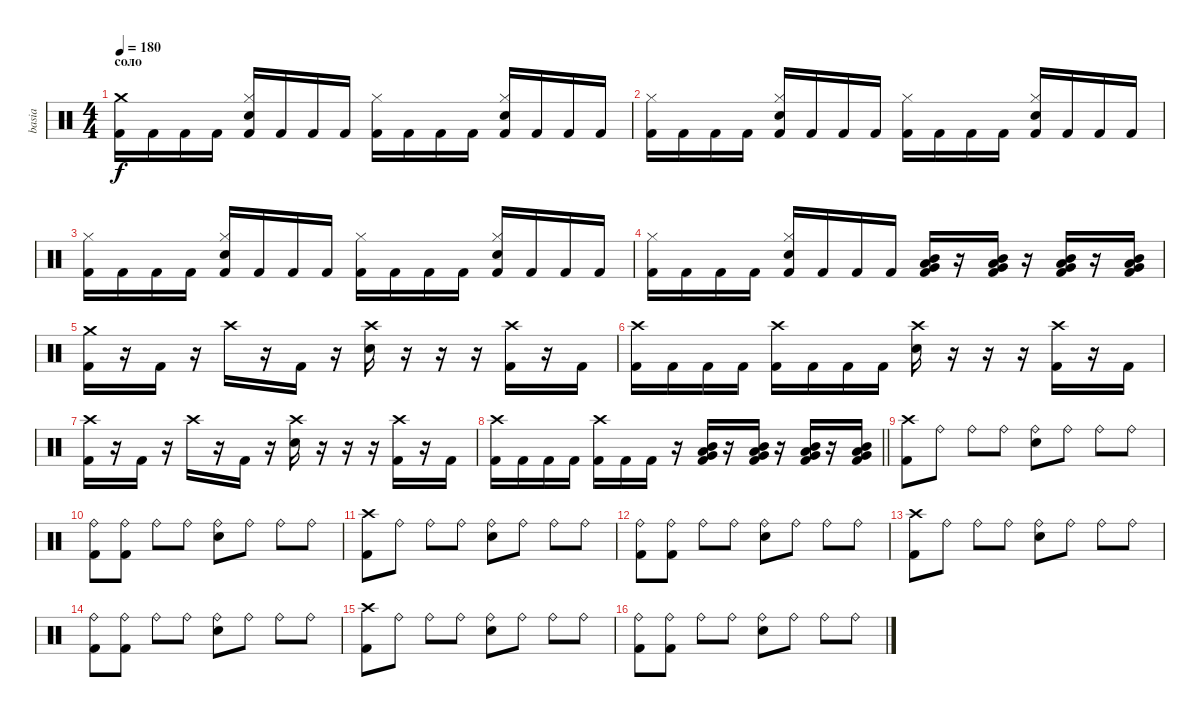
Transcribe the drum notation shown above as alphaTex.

\track ("basia" "basia") {instrument percussion}
\staff {score}
\articulation defaults
\ts (4 4)
\section ("" "соло")
\tempo 180
\clef neutral
\ks c
("Crash medium (hit)" "Kick (hit) 2").16{dy f} "Kick (hit) 2".16 "Kick (hit) 2".16 "Kick (hit) 2".16 ("Hi-Hat (closed)" "Snare (hit) 2" "Kick (hit) 2").16 "Kick (hit) 2".16 "Kick (hit) 2".16 "Kick (hit) 2".16 ("Hi-Hat (closed)" "Kick (hit) 2").16 "Kick (hit) 2".16 "Kick (hit) 2".16 "Kick (hit) 2".16 ("Hi-Hat (closed)" "Snare (hit) 2" "Kick (hit) 2").16 "Kick (hit) 2".16 "Kick (hit) 2".16 "Kick (hit) 2".16 |
("Hi-Hat (closed)" "Kick (hit) 2").16 "Kick (hit) 2".16 "Kick (hit) 2".16 "Kick (hit) 2".16 ("Hi-Hat (closed)" "Snare (hit) 2" "Kick (hit) 2").16 "Kick (hit) 2".16 "Kick (hit) 2".16 "Kick (hit) 2".16 ("Hi-Hat (closed)" "Kick (hit) 2").16 "Kick (hit) 2".16 "Kick (hit) 2".16 "Kick (hit) 2".16 ("Hi-Hat (closed)" "Snare (hit) 2" "Kick (hit) 2").16 "Kick (hit) 2".16 "Kick (hit) 2".16 "Kick (hit) 2".16 |
("Hi-Hat (closed)" "Kick (hit) 2").16 "Kick (hit) 2".16 "Kick (hit) 2".16 "Kick (hit) 2".16 ("Hi-Hat (closed)" "Snare (hit) 2" "Kick (hit) 2").16 "Kick (hit) 2".16 "Kick (hit) 2".16 "Kick (hit) 2".16 ("Hi-Hat (closed)" "Kick (hit) 2").16 "Kick (hit) 2".16 "Kick (hit) 2".16 "Kick (hit) 2".16 ("Hi-Hat (closed)" "Snare (hit) 2" "Kick (hit) 2").16 "Kick (hit) 2".16 "Kick (hit) 2".16 "Kick (hit) 2".16 |
("Hi-Hat (closed)" "Kick (hit) 2").16 "Kick (hit) 2".16 "Kick (hit) 2".16 "Kick (hit) 2".16 ("Hi-Hat (closed)" "Snare (hit) 2" "Kick (hit) 2").16 "Kick (hit) 2".16 "Kick (hit) 2".16 "Kick (hit) 2".16 ("Mid Tom (hit)" "Low Tom (hit)" "Very Low Tom (hit)" "Kick (hit) 2").16 r.16 ("Mid Tom (hit)" "Low Tom (hit)" "Very Low Tom (hit)" "Kick (hit) 2").16 r.16 ("Mid Tom (hit)" "Low Tom (hit)" "Very Low Tom (hit)" "Kick (hit) 2").16 r.16 ("Mid Tom (hit)" "Low Tom (hit)" "Very Low Tom (hit)" "Kick (hit) 2").16 |
("Crash medium (hit)" "Kick (hit) 2").16 r.16 "Kick (hit) 2".16 r.16 "Crash high (hit)".16 r.16 "Kick (hit) 2".16 r.16 ("Crash high (hit)" "Snare (hit) 2").16 r.16 r.16 r.16 ("Crash high (hit)" "Kick (hit) 2").16 r.16 "Kick (hit) 2".16 |
("Crash high (hit)" "Kick (hit) 2").16 "Kick (hit) 2".16 "Kick (hit) 2".16 "Kick (hit) 2".16 ("Crash high (hit)" "Kick (hit) 2").16 "Kick (hit) 2".16 "Kick (hit) 2".16 "Kick (hit) 2".16 ("Crash high (hit)" "Snare (hit) 2").16 r.16 r.16 r.16 ("Crash high (hit)" "Kick (hit) 2").16 r.16 "Kick (hit) 2".16 |
("Crash high (hit)" "Kick (hit) 2").16 r.16 "Kick (hit) 2".16 r.16 "Crash high (hit)".16 r.16 "Kick (hit) 2".16 r.16 ("Crash high (hit)" "Snare (hit) 2").16 r.16 r.16 r.16 ("Crash high (hit)" "Kick (hit) 2").16 r.16 "Kick (hit) 2".16 |
\barLineRight lightlight
("Crash high (hit)" "Kick (hit) 2").16 "Kick (hit) 2".16 "Kick (hit) 2".16 "Kick (hit) 2".16 ("Crash high (hit)" "Kick (hit) 2").16 "Kick (hit) 2".16 "Kick (hit) 2".16 r.16 ("Mid Tom (hit)" "Low Tom (hit)" "Very Low Tom (hit)" "Kick (hit) 2").16 r.16 ("Mid Tom (hit)" "Low Tom (hit)" "Very Low Tom (hit)" "Kick (hit) 2").16 r.16 ("Mid Tom (hit)" "Low Tom (hit)" "Very Low Tom (hit)" "Kick (hit) 2").16 r.16 ("Mid Tom (hit)" "Low Tom (hit)" "Very Low Tom (hit)" "Kick (hit) 2").16 |
("Crash high (hit)" "Kick (hit) 2").8 "Ride (bell)".8 "Ride (bell)".8 "Ride (bell)".8 ("Ride (bell)" "Snare (hit) 2").8 "Ride (bell)".8 "Ride (bell)".8 "Ride (bell)".8 |
("Ride (bell)" "Kick (hit) 2").8 ("Ride (bell)" "Kick (hit) 2").8 "Ride (bell)".8 "Ride (bell)".8 ("Ride (bell)" "Snare (hit) 2").8 "Ride (bell)".8 "Ride (bell)".8 "Ride (bell)".8 |
("Crash high (hit)" "Kick (hit) 2").8 "Ride (bell)".8 "Ride (bell)".8 "Ride (bell)".8 ("Ride (bell)" "Snare (hit) 2").8 "Ride (bell)".8 "Ride (bell)".8 "Ride (bell)".8 |
("Ride (bell)" "Kick (hit) 2").8 ("Ride (bell)" "Kick (hit) 2").8 "Ride (bell)".8 "Ride (bell)".8 ("Ride (bell)" "Snare (hit) 2").8 "Ride (bell)".8 "Ride (bell)".8 "Ride (bell)".8 |
("Crash high (hit)" "Kick (hit) 2").8 "Ride (bell)".8 "Ride (bell)".8 "Ride (bell)".8 ("Ride (bell)" "Snare (hit) 2").8 "Ride (bell)".8 "Ride (bell)".8 "Ride (bell)".8 |
("Ride (bell)" "Kick (hit) 2").8 ("Ride (bell)" "Kick (hit) 2").8 "Ride (bell)".8 "Ride (bell)".8 ("Ride (bell)" "Snare (hit) 2").8 "Ride (bell)".8 "Ride (bell)".8 "Ride (bell)".8 |
("Crash high (hit)" "Kick (hit) 2").8 "Ride (bell)".8 "Ride (bell)".8 "Ride (bell)".8 ("Ride (bell)" "Snare (hit) 2").8 "Ride (bell)".8 "Ride (bell)".8 "Ride (bell)".8 |
("Ride (bell)" "Kick (hit) 2").8 ("Ride (bell)" "Kick (hit) 2").8 "Ride (bell)".8 "Ride (bell)".8 ("Ride (bell)" "Snare (hit) 2").8 "Ride (bell)".8 "Ride (bell)".8 "Ride (bell)".8
